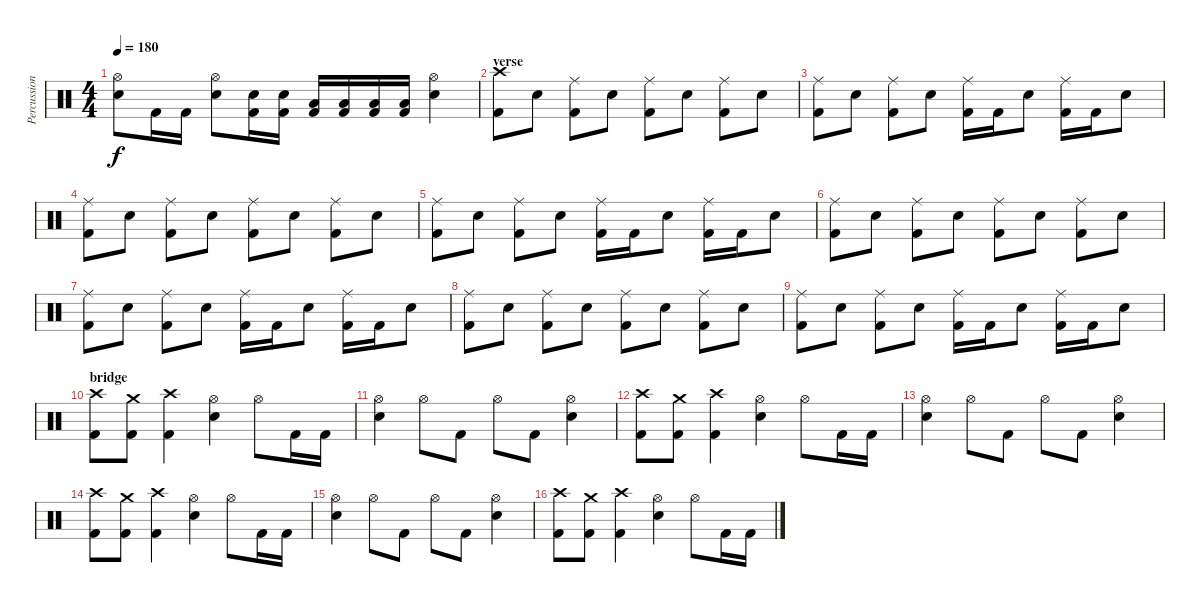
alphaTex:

\track ("Percussion" "Percussion") {instrument percussion}
\staff {score}
\articulation defaults
\ts (4 4)
\tempo 180
\clef neutral
\ks c
("Hi-Hat (open)" "Snare (hit) 2").8{dy f} "Kick (hit) 2".16 "Kick (hit) 2".16 ("Hi-Hat (open)" "Snare (hit) 2").8 ("Snare (hit) 2" "Kick (hit) 2").16 ("Snare (hit) 2" "Kick (hit) 2").16 ("Low Tom (hit)" "Kick (hit) 2").16 ("Low Tom (hit)" "Kick (hit) 2").16 ("Low Floor Tom (hit)" "Kick (hit) 2").16 ("Low Floor Tom (hit)" "Kick (hit) 2").16 ("Hi-Hat (open)" "Snare (hit) 2").4 |
\section ("" "verse")
("Crash high (hit)" "Kick (hit) 2").8 "Snare (hit) 2".8 ("Ride (middle)" "Kick (hit) 2").8 "Snare (hit) 2".8 ("Ride (middle)" "Kick (hit) 2").8 "Snare (hit) 2".8 ("Ride (middle)" "Kick (hit) 2").8 "Snare (hit) 2".8 |
("Ride (middle)" "Kick (hit) 2").8 "Snare (hit) 2".8 ("Ride (middle)" "Kick (hit) 2").8 "Snare (hit) 2".8 ("Ride (middle)" "Kick (hit) 2").16 "Kick (hit) 2".16 "Snare (hit) 2".8 ("Ride (middle)" "Kick (hit) 2").16 "Kick (hit) 2".16 "Snare (hit) 2".8 |
("Ride (middle)" "Kick (hit) 2").8 "Snare (hit) 2".8 ("Ride (middle)" "Kick (hit) 2").8 "Snare (hit) 2".8 ("Ride (middle)" "Kick (hit) 2").8 "Snare (hit) 2".8 ("Ride (middle)" "Kick (hit) 2").8 "Snare (hit) 2".8 |
("Ride (middle)" "Kick (hit) 2").8 "Snare (hit) 2".8 ("Ride (middle)" "Kick (hit) 2").8 "Snare (hit) 2".8 ("Ride (middle)" "Kick (hit) 2").16 "Kick (hit) 2".16 "Snare (hit) 2".8 ("Ride (middle)" "Kick (hit) 2").16 "Kick (hit) 2".16 "Snare (hit) 2".8 |
("Ride (middle)" "Kick (hit) 2").8 "Snare (hit) 2".8 ("Ride (middle)" "Kick (hit) 2").8 "Snare (hit) 2".8 ("Ride (middle)" "Kick (hit) 2").8 "Snare (hit) 2".8 ("Ride (middle)" "Kick (hit) 2").8 "Snare (hit) 2".8 |
("Ride (middle)" "Kick (hit) 2").8 "Snare (hit) 2".8 ("Ride (middle)" "Kick (hit) 2").8 "Snare (hit) 2".8 ("Ride (middle)" "Kick (hit) 2").16 "Kick (hit) 2".16 "Snare (hit) 2".8 ("Ride (middle)" "Kick (hit) 2").16 "Kick (hit) 2".16 "Snare (hit) 2".8 |
("Ride (middle)" "Kick (hit) 2").8 "Snare (hit) 2".8 ("Ride (middle)" "Kick (hit) 2").8 "Snare (hit) 2".8 ("Ride (middle)" "Kick (hit) 2").8 "Snare (hit) 2".8 ("Ride (middle)" "Kick (hit) 2").8 "Snare (hit) 2".8 |
("Ride (middle)" "Kick (hit) 2").8 "Snare (hit) 2".8 ("Ride (middle)" "Kick (hit) 2").8 "Snare (hit) 2".8 ("Ride (middle)" "Kick (hit) 2").16 "Kick (hit) 2".16 "Snare (hit) 2".8 ("Ride (middle)" "Kick (hit) 2").16 "Kick (hit) 2".16 "Snare (hit) 2".8 |
\section ("" "bridge")
("Crash high (hit)" "Kick (hit) 2").8 ("Crash medium (hit)" "Kick (hit) 2").8 ("Crash high (hit)" "Kick (hit) 2").4 ("Hi-Hat (open)" "Snare (hit) 2").4 "Hi-Hat (open)".8 "Kick (hit) 2".16 "Kick (hit) 2".16 |
("Hi-Hat (open)" "Snare (hit) 2").4 "Hi-Hat (open)".8 "Kick (hit) 2".8 "Hi-Hat (open)".8 "Kick (hit) 2".8 ("Hi-Hat (open)" "Snare (hit) 2").4 |
("Crash high (hit)" "Kick (hit) 2").8 ("Crash medium (hit)" "Kick (hit) 2").8 ("Crash high (hit)" "Kick (hit) 2").4 ("Hi-Hat (open)" "Snare (hit) 2").4 "Hi-Hat (open)".8 "Kick (hit) 2".16 "Kick (hit) 2".16 |
("Hi-Hat (open)" "Snare (hit) 2").4 "Hi-Hat (open)".8 "Kick (hit) 2".8 "Hi-Hat (open)".8 "Kick (hit) 2".8 ("Hi-Hat (open)" "Snare (hit) 2").4 |
("Crash high (hit)" "Kick (hit) 2").8 ("Crash medium (hit)" "Kick (hit) 2").8 ("Crash high (hit)" "Kick (hit) 2").4 ("Hi-Hat (open)" "Snare (hit) 2").4 "Hi-Hat (open)".8 "Kick (hit) 2".16 "Kick (hit) 2".16 |
("Hi-Hat (open)" "Snare (hit) 2").4 "Hi-Hat (open)".8 "Kick (hit) 2".8 "Hi-Hat (open)".8 "Kick (hit) 2".8 ("Hi-Hat (open)" "Snare (hit) 2").4 |
("Crash high (hit)" "Kick (hit) 2").8 ("Crash medium (hit)" "Kick (hit) 2").8 ("Crash high (hit)" "Kick (hit) 2").4 ("Hi-Hat (open)" "Snare (hit) 2").4 "Hi-Hat (open)".8 "Kick (hit) 2".16 "Kick (hit) 2".16
